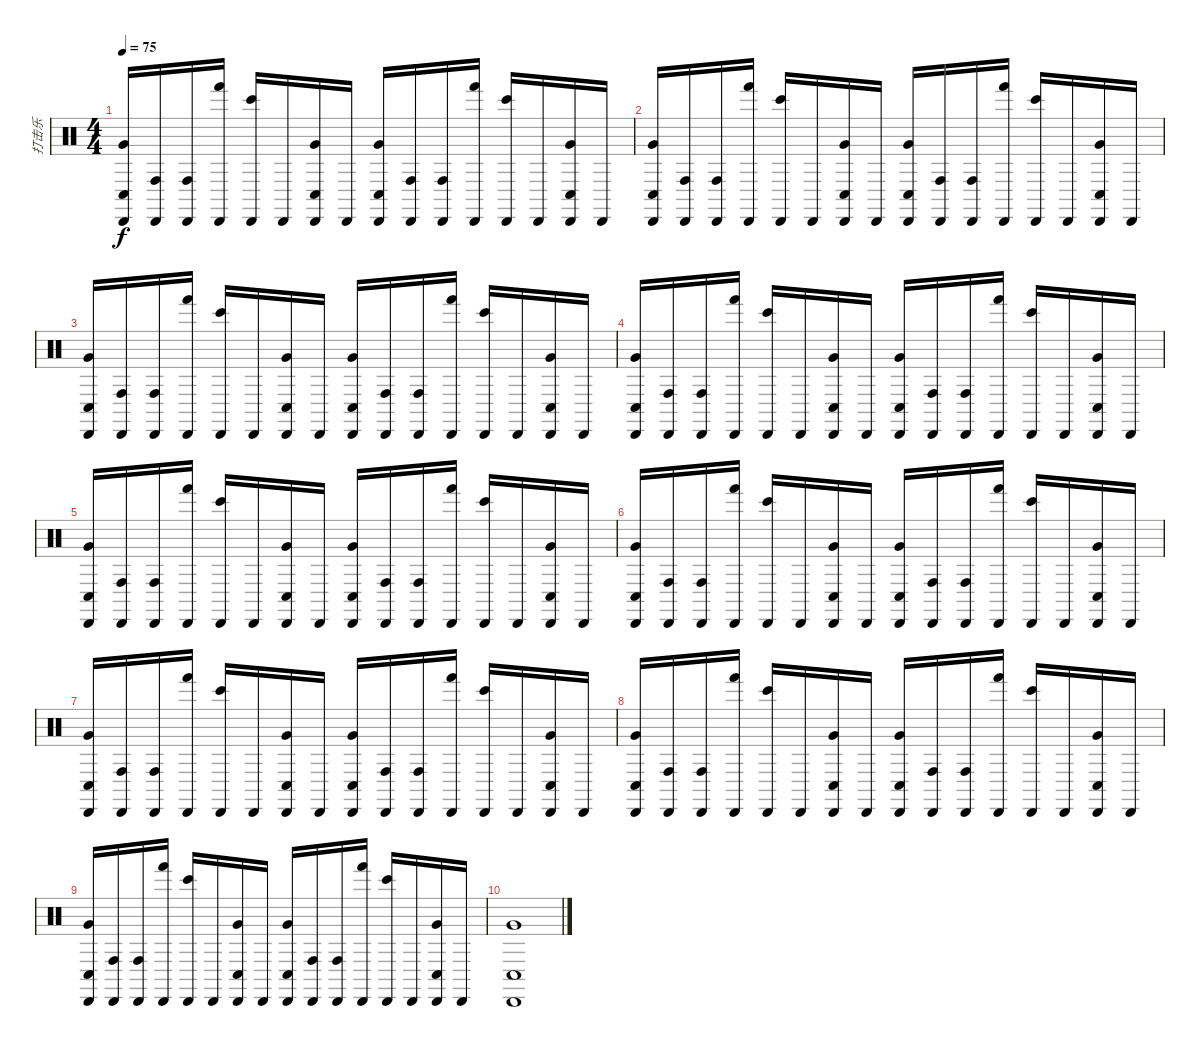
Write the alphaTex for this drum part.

\track ("打击乐" "打击乐") {instrument percussion}
\staff {score}
\articulation defaults
\ts (4 4)
\tempo 75
\clef neutral
\ks c
("Conga low (hit)" "Very Low Tom (hit)" "Cabasa (hit)").16{dy f} ("Conga high (hit)" "Cabasa (hit)").16 ("Conga high (hit)" "Cabasa (hit)").16 ("Hand (hit)" "Cabasa (hit)").16 ("Bongo High (hit)" "Cabasa (hit)").16 "Cabasa (hit)".16 ("Conga low (hit)" "Very Low Tom (hit)" "Cabasa (hit)").16 "Cabasa (hit)".16 ("Conga low (hit)" "Very Low Tom (hit)" "Cabasa (hit)").16 ("Conga high (hit)" "Cabasa (hit)").16 ("Conga high (hit)" "Cabasa (hit)").16 ("Hand (hit)" "Cabasa (hit)").16 ("Bongo High (hit)" "Cabasa (hit)").16 "Cabasa (hit)".16 ("Conga low (hit)" "Very Low Tom (hit)" "Cabasa (hit)").16 "Cabasa (hit)".16 |
("Conga low (hit)" "Very Low Tom (hit)" "Cabasa (hit)").16 ("Conga high (hit)" "Cabasa (hit)").16 ("Conga high (hit)" "Cabasa (hit)").16 ("Hand (hit)" "Cabasa (hit)").16 ("Bongo High (hit)" "Cabasa (hit)").16 "Cabasa (hit)".16 ("Conga low (hit)" "Very Low Tom (hit)" "Cabasa (hit)").16 "Cabasa (hit)".16 ("Conga low (hit)" "Very Low Tom (hit)" "Cabasa (hit)").16 ("Conga high (hit)" "Cabasa (hit)").16 ("Conga high (hit)" "Cabasa (hit)").16 ("Hand (hit)" "Cabasa (hit)").16 ("Bongo High (hit)" "Cabasa (hit)").16 "Cabasa (hit)".16 ("Conga low (hit)" "Very Low Tom (hit)" "Cabasa (hit)").16 "Cabasa (hit)".16 |
("Conga low (hit)" "Very Low Tom (hit)" "Cabasa (hit)").16 ("Conga high (hit)" "Cabasa (hit)").16 ("Conga high (hit)" "Cabasa (hit)").16 ("Hand (hit)" "Cabasa (hit)").16 ("Bongo High (hit)" "Cabasa (hit)").16 "Cabasa (hit)".16 ("Conga low (hit)" "Very Low Tom (hit)" "Cabasa (hit)").16 "Cabasa (hit)".16 ("Conga low (hit)" "Very Low Tom (hit)" "Cabasa (hit)").16 ("Conga high (hit)" "Cabasa (hit)").16 ("Conga high (hit)" "Cabasa (hit)").16 ("Hand (hit)" "Cabasa (hit)").16 ("Bongo High (hit)" "Cabasa (hit)").16 "Cabasa (hit)".16 ("Conga low (hit)" "Very Low Tom (hit)" "Cabasa (hit)").16 "Cabasa (hit)".16 |
("Conga low (hit)" "Very Low Tom (hit)" "Cabasa (hit)").16 ("Conga high (hit)" "Cabasa (hit)").16 ("Conga high (hit)" "Cabasa (hit)").16 ("Hand (hit)" "Cabasa (hit)").16 ("Bongo High (hit)" "Cabasa (hit)").16 "Cabasa (hit)".16 ("Conga low (hit)" "Very Low Tom (hit)" "Cabasa (hit)").16 "Cabasa (hit)".16 ("Conga low (hit)" "Very Low Tom (hit)" "Cabasa (hit)").16 ("Conga high (hit)" "Cabasa (hit)").16 ("Conga high (hit)" "Cabasa (hit)").16 ("Hand (hit)" "Cabasa (hit)").16 ("Bongo High (hit)" "Cabasa (hit)").16 "Cabasa (hit)".16 ("Conga low (hit)" "Very Low Tom (hit)" "Cabasa (hit)").16 "Cabasa (hit)".16 |
("Conga low (hit)" "Very Low Tom (hit)" "Cabasa (hit)").16 ("Conga high (hit)" "Cabasa (hit)").16 ("Conga high (hit)" "Cabasa (hit)").16 ("Hand (hit)" "Cabasa (hit)").16 ("Bongo High (hit)" "Cabasa (hit)").16 "Cabasa (hit)".16 ("Conga low (hit)" "Very Low Tom (hit)" "Cabasa (hit)").16 "Cabasa (hit)".16 ("Conga low (hit)" "Very Low Tom (hit)" "Cabasa (hit)").16 ("Conga high (hit)" "Cabasa (hit)").16 ("Conga high (hit)" "Cabasa (hit)").16 ("Hand (hit)" "Cabasa (hit)").16 ("Bongo High (hit)" "Cabasa (hit)").16 "Cabasa (hit)".16 ("Conga low (hit)" "Very Low Tom (hit)" "Cabasa (hit)").16 "Cabasa (hit)".16 |
("Conga low (hit)" "Very Low Tom (hit)" "Cabasa (hit)").16 ("Conga high (hit)" "Cabasa (hit)").16 ("Conga high (hit)" "Cabasa (hit)").16 ("Hand (hit)" "Cabasa (hit)").16 ("Bongo High (hit)" "Cabasa (hit)").16 "Cabasa (hit)".16 ("Conga low (hit)" "Very Low Tom (hit)" "Cabasa (hit)").16 "Cabasa (hit)".16 ("Conga low (hit)" "Very Low Tom (hit)" "Cabasa (hit)").16 ("Conga high (hit)" "Cabasa (hit)").16 ("Conga high (hit)" "Cabasa (hit)").16 ("Hand (hit)" "Cabasa (hit)").16 ("Bongo High (hit)" "Cabasa (hit)").16 "Cabasa (hit)".16 ("Conga low (hit)" "Very Low Tom (hit)" "Cabasa (hit)").16 "Cabasa (hit)".16 |
("Conga low (hit)" "Very Low Tom (hit)" "Cabasa (hit)").16 ("Conga high (hit)" "Cabasa (hit)").16 ("Conga high (hit)" "Cabasa (hit)").16 ("Hand (hit)" "Cabasa (hit)").16 ("Bongo High (hit)" "Cabasa (hit)").16 "Cabasa (hit)".16 ("Conga low (hit)" "Very Low Tom (hit)" "Cabasa (hit)").16 "Cabasa (hit)".16 ("Conga low (hit)" "Very Low Tom (hit)" "Cabasa (hit)").16 ("Conga high (hit)" "Cabasa (hit)").16 ("Conga high (hit)" "Cabasa (hit)").16 ("Hand (hit)" "Cabasa (hit)").16 ("Bongo High (hit)" "Cabasa (hit)").16 "Cabasa (hit)".16 ("Conga low (hit)" "Very Low Tom (hit)" "Cabasa (hit)").16 "Cabasa (hit)".16 |
("Conga low (hit)" "Very Low Tom (hit)" "Cabasa (hit)").16 ("Conga high (hit)" "Cabasa (hit)").16 ("Conga high (hit)" "Cabasa (hit)").16 ("Hand (hit)" "Cabasa (hit)").16 ("Bongo High (hit)" "Cabasa (hit)").16 "Cabasa (hit)".16 ("Conga low (hit)" "Very Low Tom (hit)" "Cabasa (hit)").16 "Cabasa (hit)".16 ("Conga low (hit)" "Very Low Tom (hit)" "Cabasa (hit)").16 ("Conga high (hit)" "Cabasa (hit)").16 ("Conga high (hit)" "Cabasa (hit)").16 ("Hand (hit)" "Cabasa (hit)").16 ("Bongo High (hit)" "Cabasa (hit)").16 "Cabasa (hit)".16 ("Conga low (hit)" "Very Low Tom (hit)" "Cabasa (hit)").16 "Cabasa (hit)".16 |
("Conga low (hit)" "Very Low Tom (hit)" "Cabasa (hit)").16 ("Conga high (hit)" "Cabasa (hit)").16 ("Conga high (hit)" "Cabasa (hit)").16 ("Hand (hit)" "Cabasa (hit)").16 ("Bongo High (hit)" "Cabasa (hit)").16 "Cabasa (hit)".16 ("Conga low (hit)" "Very Low Tom (hit)" "Cabasa (hit)").16 "Cabasa (hit)".16 ("Conga low (hit)" "Very Low Tom (hit)" "Cabasa (hit)").16 ("Conga high (hit)" "Cabasa (hit)").16 ("Conga high (hit)" "Cabasa (hit)").16 ("Hand (hit)" "Cabasa (hit)").16 ("Bongo High (hit)" "Cabasa (hit)").16 "Cabasa (hit)".16 ("Conga low (hit)" "Very Low Tom (hit)" "Cabasa (hit)").16 "Cabasa (hit)".16 |
("Conga low (hit)" "Very Low Tom (hit)" "Cabasa (hit)").1
